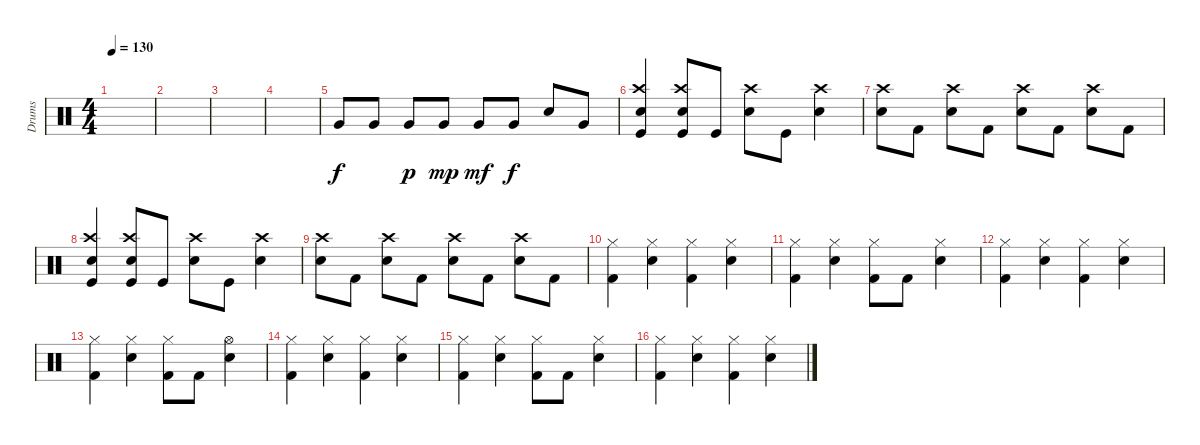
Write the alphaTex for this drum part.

\track ("Drums" "Drums") {instrument percussion}
\staff {score}
\articulation defaults
\ts (4 4)
\tempo 130
\clef neutral
\ks c
|
|
|
|
"Very Low Tom (hit)".8 "Very Low Tom (hit)".8 "Very Low Tom (hit)".8{dy p} "Very Low Tom (hit)".8{dy mp} "Very Low Tom (hit)".8{dy mf} "Very Low Tom (hit)".8{dy f} "Snare (hit) 2".8 "Very Low Tom (hit)".8 |
("Crash high (hit)" "Snare (hit) 2" "Kick (hit)").4 ("Crash high (hit)" "Snare (hit) 2" "Kick (hit)").8 "Kick (hit)".8 ("Crash high (hit)" "Snare (hit) 2").8 "Kick (hit)".8 ("Crash high (hit)" "Snare (hit) 2").4 |
("Crash high (hit)" "Snare (hit) 2").8 "Kick (hit) 2".8 ("Crash high (hit)" "Snare (hit) 2").8 "Kick (hit) 2".8 ("Crash high (hit)" "Snare (hit) 2").8 "Kick (hit) 2".8 ("Crash high (hit)" "Snare (hit) 2").8 "Kick (hit) 2".8 |
("Crash high (hit)" "Snare (hit) 2" "Kick (hit)").4 ("Crash high (hit)" "Snare (hit) 2" "Kick (hit)").8 "Kick (hit)".8 ("Crash high (hit)" "Snare (hit) 2").8 "Kick (hit)".8 ("Crash high (hit)" "Snare (hit) 2").4 |
("Crash high (hit)" "Snare (hit) 2").8 "Kick (hit) 2".8 ("Crash high (hit)" "Snare (hit) 2").8 "Kick (hit) 2".8 ("Crash high (hit)" "Snare (hit) 2").8 "Kick (hit) 2".8 ("Crash high (hit)" "Snare (hit) 2").8 "Kick (hit) 2".8 |
("Hi-Hat (closed)" "Kick (hit) 2").4 ("Hi-Hat (closed)" "Snare (hit) 2").4 ("Hi-Hat (closed)" "Kick (hit) 2").4 ("Hi-Hat (closed)" "Snare (hit) 2").4 |
("Hi-Hat (closed)" "Kick (hit) 2").4 ("Hi-Hat (closed)" "Snare (hit) 2").4 ("Hi-Hat (closed)" "Kick (hit) 2").8 "Kick (hit) 2".8 ("Hi-Hat (closed)" "Snare (hit) 2").4 |
("Hi-Hat (closed)" "Kick (hit) 2").4 ("Hi-Hat (closed)" "Snare (hit) 2").4 ("Hi-Hat (closed)" "Kick (hit) 2").4 ("Hi-Hat (closed)" "Snare (hit) 2").4 |
("Hi-Hat (closed)" "Kick (hit) 2").4 ("Hi-Hat (closed)" "Snare (hit) 2").4 ("Hi-Hat (closed)" "Kick (hit) 2").8 "Kick (hit) 2".8 ("Hi-Hat (open)" "Snare (hit) 2").4 |
("Hi-Hat (closed)" "Kick (hit) 2").4 ("Hi-Hat (closed)" "Snare (hit) 2").4 ("Hi-Hat (closed)" "Kick (hit) 2").4 ("Hi-Hat (closed)" "Snare (hit) 2").4 |
("Hi-Hat (closed)" "Kick (hit) 2").4 ("Hi-Hat (closed)" "Snare (hit) 2").4 ("Hi-Hat (closed)" "Kick (hit) 2").8 "Kick (hit) 2".8 ("Hi-Hat (closed)" "Snare (hit) 2").4 |
("Hi-Hat (closed)" "Kick (hit) 2").4 ("Hi-Hat (closed)" "Snare (hit) 2").4 ("Hi-Hat (closed)" "Kick (hit) 2").4 ("Hi-Hat (closed)" "Snare (hit) 2").4
